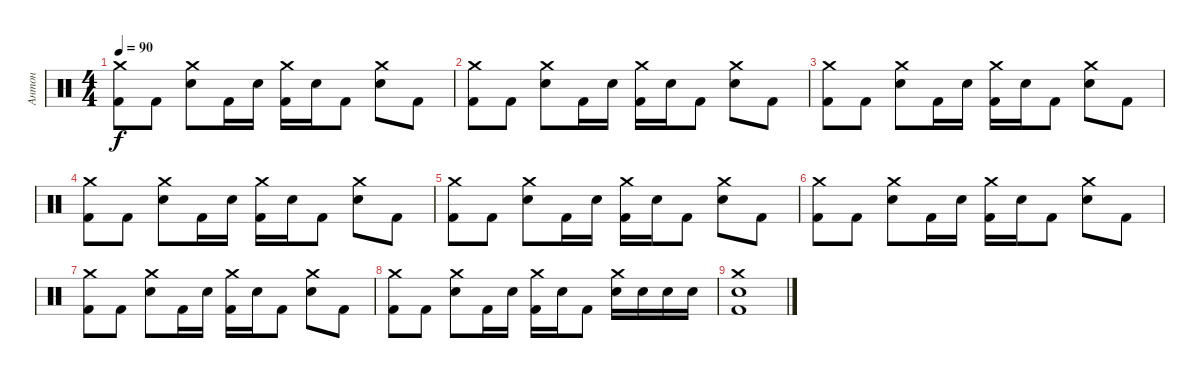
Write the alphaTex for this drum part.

\track ("Антон" "Антон") {instrument percussion}
\staff {score}
\articulation defaults
\ts (4 4)
\tempo 90
\clef neutral
\ks c
("Crash medium (hit)" "Kick (hit) 2").8{dy f} "Kick (hit) 2".8 ("Crash medium (hit)" "Electric Snare (hit)").8 "Kick (hit) 2".16 "Electric Snare (hit)".16 ("Crash medium (hit)" "Kick (hit) 2").16 "Electric Snare (hit)".16 "Kick (hit) 2".8 ("Crash medium (hit)" "Electric Snare (hit)").8 "Kick (hit) 2".8 |
("Crash medium (hit)" "Kick (hit) 2").8 "Kick (hit) 2".8 ("Crash medium (hit)" "Electric Snare (hit)").8 "Kick (hit) 2".16 "Electric Snare (hit)".16 ("Crash medium (hit)" "Kick (hit) 2").16 "Electric Snare (hit)".16 "Kick (hit) 2".8 ("Crash medium (hit)" "Electric Snare (hit)").8 "Kick (hit) 2".8 |
("Crash medium (hit)" "Kick (hit) 2").8 "Kick (hit) 2".8 ("Crash medium (hit)" "Electric Snare (hit)").8 "Kick (hit) 2".16 "Electric Snare (hit)".16 ("Crash medium (hit)" "Kick (hit) 2").16 "Electric Snare (hit)".16 "Kick (hit) 2".8 ("Crash medium (hit)" "Electric Snare (hit)").8 "Kick (hit) 2".8 |
("Crash medium (hit)" "Kick (hit) 2").8 "Kick (hit) 2".8 ("Crash medium (hit)" "Electric Snare (hit)").8 "Kick (hit) 2".16 "Electric Snare (hit)".16 ("Crash medium (hit)" "Kick (hit) 2").16 "Electric Snare (hit)".16 "Kick (hit) 2".8 ("Crash medium (hit)" "Electric Snare (hit)").8 "Kick (hit) 2".8 |
("Crash medium (hit)" "Kick (hit) 2").8 "Kick (hit) 2".8 ("Crash medium (hit)" "Electric Snare (hit)").8 "Kick (hit) 2".16 "Electric Snare (hit)".16 ("Crash medium (hit)" "Kick (hit) 2").16 "Electric Snare (hit)".16 "Kick (hit) 2".8 ("Crash medium (hit)" "Electric Snare (hit)").8 "Kick (hit) 2".8 |
("Crash medium (hit)" "Kick (hit) 2").8 "Kick (hit) 2".8 ("Crash medium (hit)" "Electric Snare (hit)").8 "Kick (hit) 2".16 "Electric Snare (hit)".16 ("Crash medium (hit)" "Kick (hit) 2").16 "Electric Snare (hit)".16 "Kick (hit) 2".8 ("Crash medium (hit)" "Electric Snare (hit)").8 "Kick (hit) 2".8 |
("Crash medium (hit)" "Kick (hit) 2").8 "Kick (hit) 2".8 ("Crash medium (hit)" "Electric Snare (hit)").8 "Kick (hit) 2".16 "Electric Snare (hit)".16 ("Crash medium (hit)" "Kick (hit) 2").16 "Electric Snare (hit)".16 "Kick (hit) 2".8 ("Crash medium (hit)" "Electric Snare (hit)").8 "Kick (hit) 2".8 |
("Crash medium (hit)" "Kick (hit) 2").8 "Kick (hit) 2".8 ("Crash medium (hit)" "Electric Snare (hit)").8 "Kick (hit) 2".16 "Electric Snare (hit)".16 ("Crash medium (hit)" "Kick (hit) 2").16 "Electric Snare (hit)".16 "Kick (hit) 2".8 ("Crash medium (hit)" "Electric Snare (hit)").16 "Electric Snare (hit)".16 "Electric Snare (hit)".16 "Electric Snare (hit)".16 |
("Crash medium (hit)" "Electric Snare (hit)" "Kick (hit) 2").1
